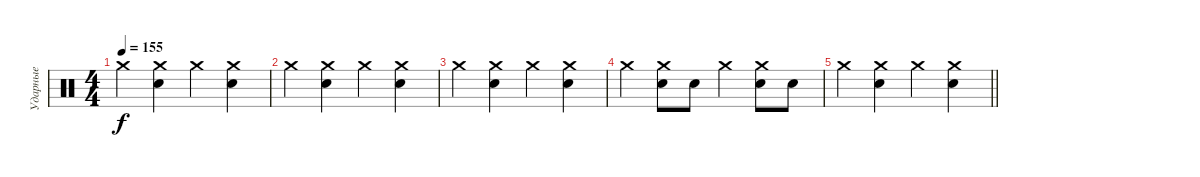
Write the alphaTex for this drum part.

\track ("Ударные" "Ударные") {instrument percussion}
\staff {score}
\articulation defaults
\ts (4 4)
\tempo 155
\clef neutral
\ks c "Crash medium (hit)".4{dy f}
("Crash medium (hit)" "Electric Snare (hit)").4 "Crash medium (hit)".4 ("Crash medium (hit)" "Electric Snare (hit)").4 |
"Crash medium (hit)".4 ("Crash medium (hit)" "Electric Snare (hit)").4 "Crash medium (hit)".4 ("Crash medium (hit)" "Electric Snare (hit)").4 |
"Crash medium (hit)".4 ("Crash medium (hit)" "Electric Snare (hit)").4 "Crash medium (hit)".4 ("Crash medium (hit)" "Electric Snare (hit)").4 |
"Crash medium (hit)".4 ("Crash medium (hit)" "Electric Snare (hit)").8 "Electric Snare (hit)".8 "Crash medium (hit)".4 ("Crash medium (hit)" "Electric Snare (hit)").8 "Electric Snare (hit)".8 |
\barLineRight lightlight "Crash medium (hit)".4
("Crash medium (hit)" "Electric Snare (hit)").4 "Crash medium (hit)".4 ("Crash medium (hit)" "Electric Snare (hit)").4
